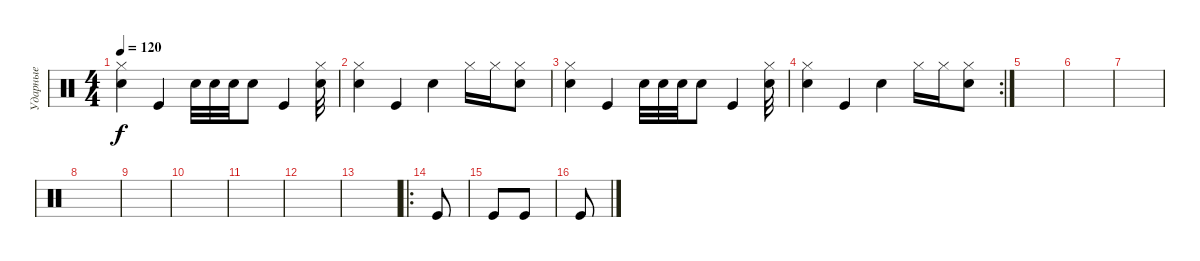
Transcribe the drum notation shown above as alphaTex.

\track ("Ударные" "Ударные") {instrument percussion}
\staff {score}
\articulation defaults
\ts (4 4)
\tempo 120
\clef neutral
\ks c
("Snare (hit) 2" "Hi-Hat (closed)").4{dy f} "Kick (hit)".4 "Snare (hit) 2".32 "Snare (hit) 2".32 "Snare (hit) 2".32 "Snare (hit) 2".8 "Kick (hit)".4 ("Hi-Hat (closed)" "Snare (hit) 2").32 |
("Snare (hit) 2" "Hi-Hat (closed)").4 "Kick (hit)".4 "Snare (hit) 2".4 "Hi-Hat (closed)".16 "Hi-Hat (closed)".16 ("Hi-Hat (closed)" "Snare (hit) 2").8 |
("Snare (hit) 2" "Hi-Hat (closed)").4 "Kick (hit)".4 "Snare (hit) 2".32 "Snare (hit) 2".32 "Snare (hit) 2".32 "Snare (hit) 2".8 "Kick (hit)".4 ("Hi-Hat (closed)" "Snare (hit) 2").32 |
\rc 2
("Snare (hit) 2" "Hi-Hat (closed)").4 "Kick (hit)".4 "Snare (hit) 2".4 "Hi-Hat (closed)".16 "Hi-Hat (closed)".16 ("Hi-Hat (closed)" "Snare (hit) 2").8 |
|
|
|
|
|
|
|
|
|
\ro "Kick (hit)".8
|
"Kick (hit)".8 "Kick (hit)".8 |
"Kick (hit)".8
